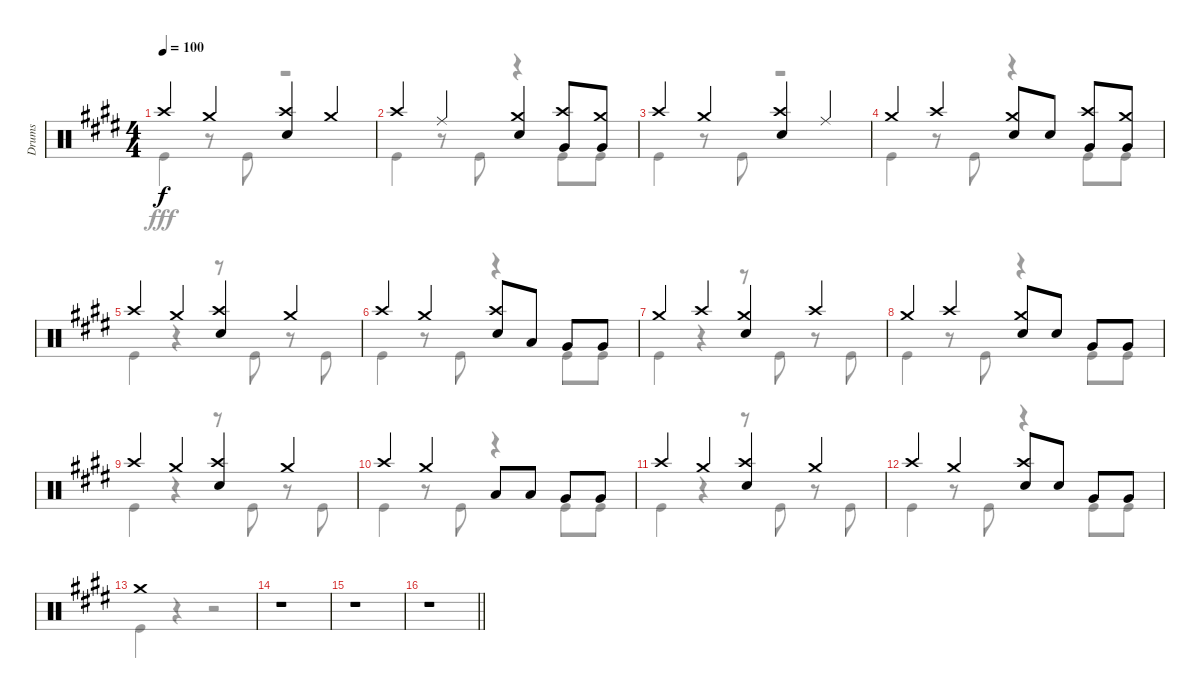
\track ("Drums" "Drums") {instrument percussion}
\staff {score}
\articulation defaults
\voice
\ts (4 4)
\tempo 100
\clef neutral
\ks e "Crash high (hit)".4{dy f} "Crash medium (hit)".4
("Crash high (hit)" "Snare (hit) 2").4 "Crash medium (hit)".4 |
"Crash high (hit)".4 "Ride (middle)".4 ("Crash medium (hit)" "Snare (hit) 2").4 ("Crash high (hit)" "Very Low Tom (hit)").8 ("Crash medium (hit)" "Very Low Tom (hit)").8 |
"Crash high (hit)".4 "Crash medium (hit)".4 ("Crash high (hit)" "Snare (hit) 2").4 "Ride (middle)".4 |
"Crash medium (hit)".4 "Crash high (hit)".4 ("Crash medium (hit)" "Snare (hit) 2").8 "Snare (hit) 2".8 ("Crash high (hit)" "Very Low Tom (hit)").8 ("Crash medium (hit)" "Very Low Tom (hit)").8 |
"Crash high (hit)".4 "Crash medium (hit)".4 ("Crash high (hit)" "Snare (hit) 2").4 "Crash medium (hit)".4 |
"Crash high (hit)".4 "Crash medium (hit)".4 ("Crash high (hit)" "Snare (hit) 2").8 "Low Tom (hit)".8 "Very Low Tom (hit)".8 "Very Low Tom (hit)".8 |
"Crash medium (hit)".4 "Crash high (hit)".4 ("Crash medium (hit)" "Snare (hit) 2").4 "Crash high (hit)".4 |
"Crash medium (hit)".4 "Crash high (hit)".4 ("Crash medium (hit)" "Snare (hit) 2").8 "Snare (hit) 2".8 "Very Low Tom (hit)".8 "Very Low Tom (hit)".8 |
"Crash high (hit)".4 "Crash medium (hit)".4 ("Crash high (hit)" "Snare (hit) 2").4 "Crash medium (hit)".4 |
"Crash high (hit)".4 "Crash medium (hit)".4 "Low Tom (hit)".8 "Low Tom (hit)".8 "Very Low Tom (hit)".8 "Very Low Tom (hit)".8 |
"Crash high (hit)".4 "Crash medium (hit)".4 ("Crash high (hit)" "Snare (hit) 2").4 "Crash medium (hit)".4 |
"Crash high (hit)".4 "Crash medium (hit)".4 ("Crash high (hit)" "Snare (hit) 2").8 "Snare (hit) 2".8 "Very Low Tom (hit)".8 "Very Low Tom (hit)".8 |
"Crash medium (hit)".1 |
r.1 |
r.1 |
\barLineRight lightlight
r.1
\voice
\clef neutral
\ottava regular
\simile none
\ks e "Kick (hit)".4{dy fff}
r.8 "Kick (hit)".8 r.2 |
"Kick (hit)".4 r.8 "Kick (hit)".8 r.4 "Kick (hit)".8 "Kick (hit)".8 |
"Kick (hit)".4 r.8 "Kick (hit)".8 r.2 |
"Kick (hit)".4 r.8 "Kick (hit)".8 r.4 "Kick (hit)".8 "Kick (hit)".8 |
"Kick (hit)".4 r.4 r.8 "Kick (hit)".8 r.8 "Kick (hit)".8 |
"Kick (hit)".4 r.8 "Kick (hit)".8 r.4 "Kick (hit)".8 "Kick (hit)".8 |
"Kick (hit)".4 r.4 r.8 "Kick (hit)".8 r.8 "Kick (hit)".8 |
"Kick (hit)".4 r.8 "Kick (hit)".8 r.4 "Kick (hit)".8 "Kick (hit)".8 |
"Kick (hit)".4 r.4 r.8 "Kick (hit)".8 r.8 "Kick (hit)".8 |
"Kick (hit)".4 r.8 "Kick (hit)".8 r.4 "Kick (hit)".8 "Kick (hit)".8 |
"Kick (hit)".4 r.4 r.8 "Kick (hit)".8 r.8 "Kick (hit)".8 |
"Kick (hit)".4 r.8 "Kick (hit)".8 r.4 "Kick (hit)".8 "Kick (hit)".8 |
"Kick (hit)".4 r.4 r.2 |
r.1 |
r.1 |
\barLineRight lightlight
r.1
